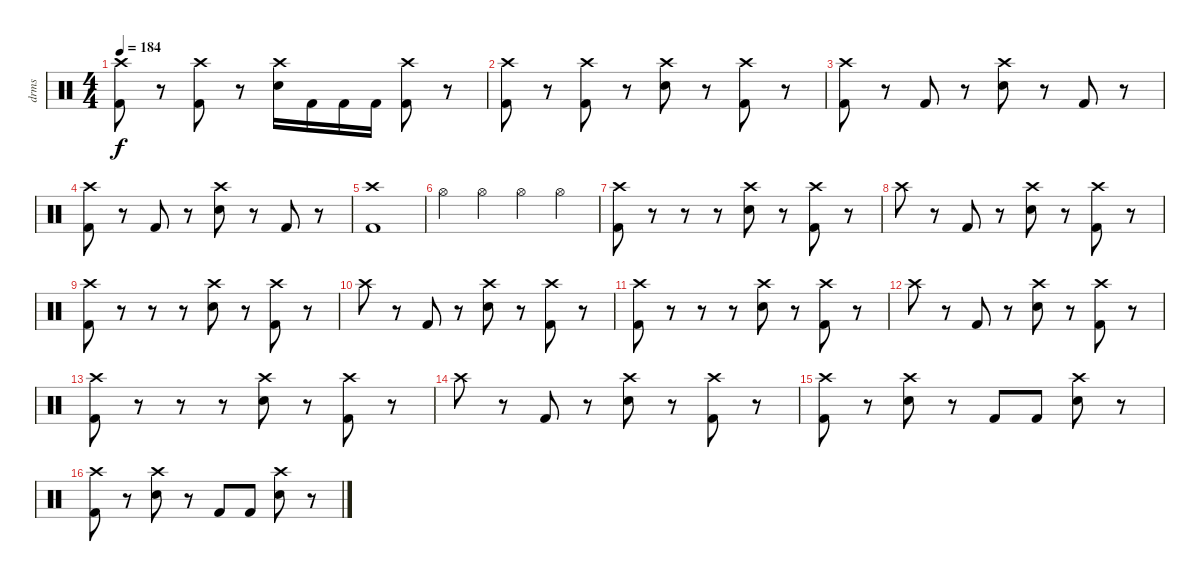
\track ("drms" "drms") {instrument percussion}
\staff {score}
\articulation defaults
\ts (4 4)
\tempo 184
\clef neutral
\ks c
("Crash high (hit)" "Kick (hit) 2").8{dy f} r.8 ("Crash high (hit)" "Kick (hit) 2").8 r.8 ("Crash high (hit)" "Snare (hit) 2").16 "Kick (hit) 2".16 "Kick (hit) 2".16 "Kick (hit) 2".16 ("Crash high (hit)" "Kick (hit) 2").8 r.8 |
("Crash high (hit)" "Kick (hit) 2").8 r.8 ("Crash high (hit)" "Kick (hit) 2").8 r.8 ("Crash high (hit)" "Snare (hit) 2").8 r.8 ("Crash high (hit)" "Kick (hit) 2").8 r.8 |
("Crash high (hit)" "Kick (hit) 2").8 r.8 "Kick (hit) 2".8 r.8 ("Crash high (hit)" "Snare (hit) 2").8 r.8 "Kick (hit) 2".8 r.8 |
("Crash high (hit)" "Kick (hit) 2").8 r.8 "Kick (hit) 2".8 r.8 ("Crash high (hit)" "Snare (hit) 2").8 r.8 "Kick (hit) 2".8 r.8 |
("Crash high (hit)" "Kick (hit) 2").1 |
"Hi-Hat (open)".4 "Hi-Hat (open)".4 "Hi-Hat (open)".4 "Hi-Hat (open)".4 |
("Kick (hit) 2" "Crash high (hit)").8 r.8 r.8 r.8 ("Snare (hit) 2" "Crash high (hit)").8 r.8 ("Kick (hit) 2" "Crash high (hit)").8 r.8 |
"Crash high (hit)".8 r.8 "Kick (hit) 2".8 r.8 ("Snare (hit) 2" "Crash high (hit)").8 r.8 ("Kick (hit) 2" "Crash high (hit)").8 r.8 |
("Kick (hit) 2" "Crash high (hit)").8 r.8 r.8 r.8 ("Snare (hit) 2" "Crash high (hit)").8 r.8 ("Kick (hit) 2" "Crash high (hit)").8 r.8 |
"Crash high (hit)".8 r.8 "Kick (hit) 2".8 r.8 ("Snare (hit) 2" "Crash high (hit)").8 r.8 ("Kick (hit) 2" "Crash high (hit)").8 r.8 |
("Kick (hit) 2" "Crash high (hit)").8 r.8 r.8 r.8 ("Snare (hit) 2" "Crash high (hit)").8 r.8 ("Kick (hit) 2" "Crash high (hit)").8 r.8 |
"Crash high (hit)".8 r.8 "Kick (hit) 2".8 r.8 ("Snare (hit) 2" "Crash high (hit)").8 r.8 ("Kick (hit) 2" "Crash high (hit)").8 r.8 |
("Kick (hit) 2" "Crash high (hit)").8 r.8 r.8 r.8 ("Snare (hit) 2" "Crash high (hit)").8 r.8 ("Kick (hit) 2" "Crash high (hit)").8 r.8 |
"Crash high (hit)".8 r.8 "Kick (hit) 2".8 r.8 ("Snare (hit) 2" "Crash high (hit)").8 r.8 ("Kick (hit) 2" "Crash high (hit)").8 r.8 |
("Crash high (hit)" "Kick (hit) 2").8 r.8 ("Crash high (hit)" "Snare (hit) 2").8 r.8 "Kick (hit) 2".8 "Kick (hit) 2".8 ("Crash high (hit)" "Snare (hit) 2").8 r.8 |
("Crash high (hit)" "Kick (hit) 2").8 r.8 ("Crash high (hit)" "Snare (hit) 2").8 r.8 "Kick (hit) 2".8 "Kick (hit) 2".8 ("Crash high (hit)" "Snare (hit) 2").8 r.8
